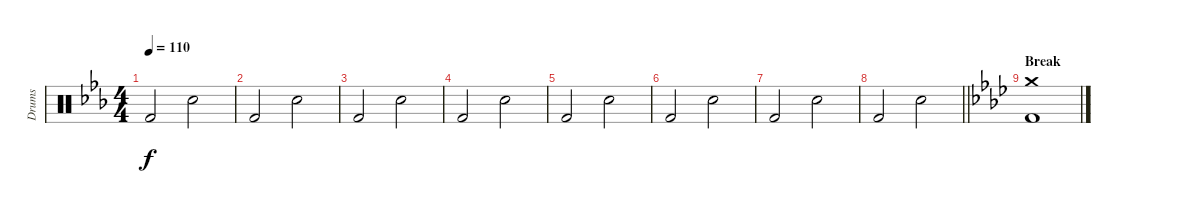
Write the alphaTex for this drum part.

\track ("Drums" "Drums") {instrument percussion}
\staff {score}
\articulation defaults
\ts (4 4)
\tempo 110
\clef neutral
\ks cminor "Kick (hit) 2".2{dy f} "Snare (hit) 2".2
|
"Kick (hit) 2".2 "Snare (hit) 2".2 |
"Kick (hit) 2".2 "Snare (hit) 2".2 |
"Kick (hit) 2".2 "Snare (hit) 2".2 |
"Kick (hit) 2".2 "Snare (hit) 2".2 |
"Kick (hit) 2".2 "Snare (hit) 2".2 |
"Kick (hit) 2".2 "Snare (hit) 2".2 |
\barLineRight lightlight "Kick (hit) 2".2 "Snare (hit) 2".2
|
\section ("" "Break")
\ks fminor
("Crash medium (hit)" "Kick (hit) 2").1
